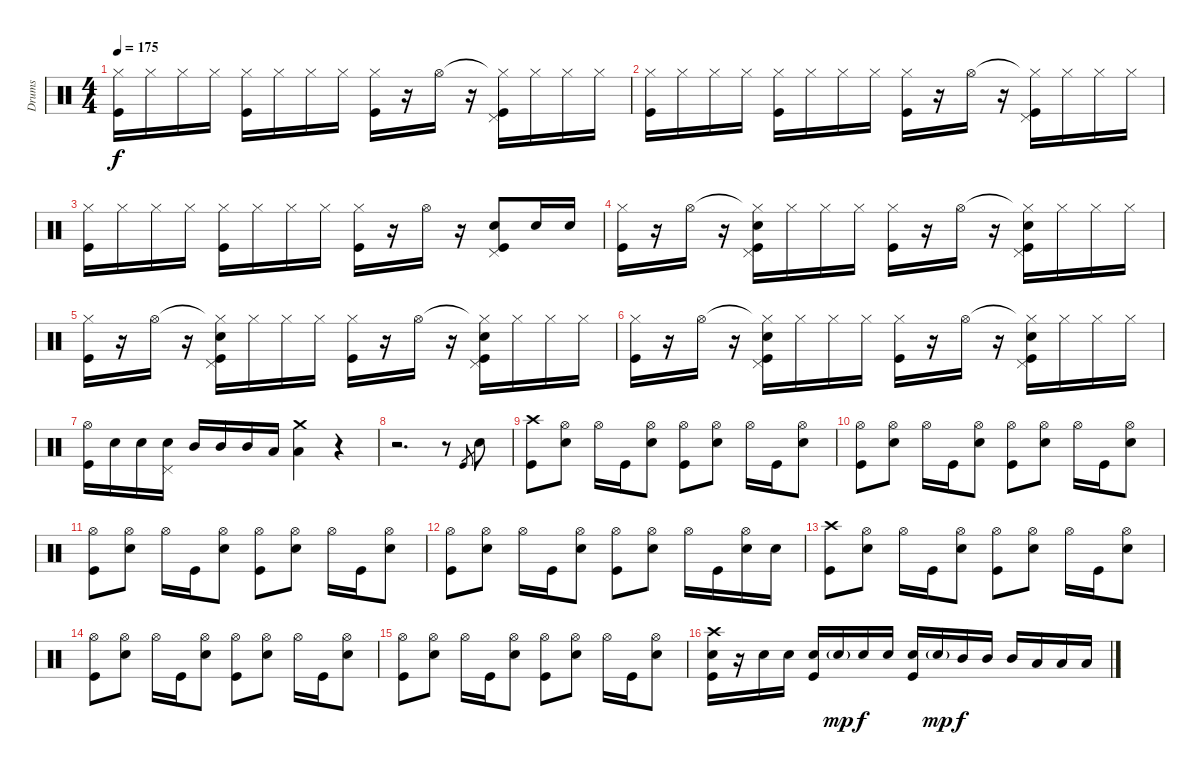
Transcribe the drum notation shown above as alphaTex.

\track ("Drums" "Drums") {instrument percussion}
\staff {score}
\articulation defaults
\ts (4 4)
\tempo 175
\clef neutral
\ks c
("Hi-Hat (closed)" "Kick (hit)").16{dy f} "Hi-Hat (closed)".16 "Hi-Hat (closed)".16 "Hi-Hat (closed)".16 ("Hi-Hat (closed)" "Kick (hit)").16 "Hi-Hat (closed)".16 "Hi-Hat (closed)".16 "Hi-Hat (closed)".16 ("Hi-Hat (closed)" "Kick (hit)").16 r.16 "Hi-Hat (open)".16 r.16 ("Hi-Hat (closed)"{t} "Pedal Hi-Hat (hit)" "Kick (hit)").16 "Hi-Hat (closed)".16 "Hi-Hat (closed)".16 "Hi-Hat (closed)".16 |
("Hi-Hat (closed)" "Kick (hit)").16 "Hi-Hat (closed)".16 "Hi-Hat (closed)".16 "Hi-Hat (closed)".16 ("Hi-Hat (closed)" "Kick (hit)").16 "Hi-Hat (closed)".16 "Hi-Hat (closed)".16 "Hi-Hat (closed)".16 ("Hi-Hat (closed)" "Kick (hit)").16 r.16 "Hi-Hat (open)".16 r.16 ("Hi-Hat (closed)"{t} "Pedal Hi-Hat (hit)" "Kick (hit)").16 "Hi-Hat (closed)".16 "Hi-Hat (closed)".16 "Hi-Hat (closed)".16 |
("Hi-Hat (closed)" "Kick (hit)").16 "Hi-Hat (closed)".16 "Hi-Hat (closed)".16 "Hi-Hat (closed)".16 ("Hi-Hat (closed)" "Kick (hit)").16 "Hi-Hat (closed)".16 "Hi-Hat (closed)".16 "Hi-Hat (closed)".16 ("Hi-Hat (closed)" "Kick (hit)").16 r.16 "Hi-Hat (open)".16 r.16 ("Pedal Hi-Hat (hit)" "Electric Snare (hit)" "Kick (hit)").8 "Electric Snare (hit)".16 "Electric Snare (hit)".16 |
("Hi-Hat (closed)" "Kick (hit)").16 r.16 "Hi-Hat (open)".16 r.16 ("Hi-Hat (closed)"{t} "Pedal Hi-Hat (hit)" "Electric Snare (hit)" "Kick (hit)").16 "Hi-Hat (closed)".16 "Hi-Hat (closed)".16 "Hi-Hat (closed)".16 ("Hi-Hat (closed)" "Kick (hit)").16 r.16 "Hi-Hat (open)".16 r.16 ("Hi-Hat (closed)"{t} "Pedal Hi-Hat (hit)" "Electric Snare (hit)" "Kick (hit)").16 "Hi-Hat (closed)".16 "Hi-Hat (closed)".16 "Hi-Hat (closed)".16 |
("Hi-Hat (closed)" "Kick (hit)").16 r.16 "Hi-Hat (open)".16 r.16 ("Hi-Hat (closed)"{t} "Pedal Hi-Hat (hit)" "Electric Snare (hit)" "Kick (hit)").16 "Hi-Hat (closed)".16 "Hi-Hat (closed)".16 "Hi-Hat (closed)".16 ("Hi-Hat (closed)" "Kick (hit)").16 r.16 "Hi-Hat (open)".16 r.16 ("Hi-Hat (closed)"{t} "Pedal Hi-Hat (hit)" "Electric Snare (hit)" "Kick (hit)").16 "Hi-Hat (closed)".16 "Hi-Hat (closed)".16 "Hi-Hat (closed)".16 |
("Hi-Hat (closed)" "Kick (hit)").16 r.16 "Hi-Hat (open)".16 r.16 ("Hi-Hat (closed)"{t} "Pedal Hi-Hat (hit)" "Electric Snare (hit)" "Kick (hit)").16 "Hi-Hat (closed)".16 "Hi-Hat (closed)".16 "Hi-Hat (closed)".16 ("Hi-Hat (closed)" "Kick (hit)").16 r.16 "Hi-Hat (open)".16 r.16 ("Hi-Hat (closed)"{t} "Pedal Hi-Hat (hit)" "Electric Snare (hit)" "Kick (hit)").16 "Hi-Hat (closed)".16 "Hi-Hat (closed)".16 "Hi-Hat (closed)".16 |
("Hi-Hat (open)" "Kick (hit)").16 "Electric Snare (hit)".16 "Electric Snare (hit)".16 ("Pedal Hi-Hat (hit)" "Electric Snare (hit)").16 "Mid Tom (hit)".16 "Mid Tom (hit)".16 "Mid Tom (hit)".16 "Low Tom (hit)".16 ("Crash medium (hit)" "Low Tom (hit)").4 r.4 |
r.2{d} r.8 "Kick (hit)".8{gr} "Snare (hit) 2".8 |
("Crash high (hit)" "Kick (hit)").8 ("Hi-Hat (open)" "Electric Snare (hit)").8 "Hi-Hat (open)".16 "Kick (hit)".16 ("Hi-Hat (open)" "Electric Snare (hit)").8 ("Hi-Hat (open)" "Kick (hit)").8 ("Hi-Hat (open)" "Electric Snare (hit)").8 "Hi-Hat (open)".16 "Kick (hit)".16 ("Hi-Hat (open)" "Electric Snare (hit)").8 |
("Hi-Hat (open)" "Kick (hit)").8 ("Hi-Hat (open)" "Electric Snare (hit)").8 "Hi-Hat (open)".16 "Kick (hit)".16 ("Hi-Hat (open)" "Electric Snare (hit)").8 ("Hi-Hat (open)" "Kick (hit)").8 ("Hi-Hat (open)" "Electric Snare (hit)").8 "Hi-Hat (open)".16 "Kick (hit)".16 ("Hi-Hat (open)" "Electric Snare (hit)").8 |
("Hi-Hat (open)" "Kick (hit)").8 ("Hi-Hat (open)" "Electric Snare (hit)").8 "Hi-Hat (open)".16 "Kick (hit)".16 ("Hi-Hat (open)" "Electric Snare (hit)").8 ("Hi-Hat (open)" "Kick (hit)").8 ("Hi-Hat (open)" "Electric Snare (hit)").8 "Hi-Hat (open)".16 "Kick (hit)".16 ("Hi-Hat (open)" "Electric Snare (hit)").8 |
("Hi-Hat (open)" "Kick (hit)").8 ("Hi-Hat (open)" "Electric Snare (hit)").8 "Hi-Hat (open)".16 "Kick (hit)".16 ("Hi-Hat (open)" "Electric Snare (hit)").8 ("Hi-Hat (open)" "Kick (hit)").8 ("Hi-Hat (open)" "Electric Snare (hit)").8 "Hi-Hat (open)".16 "Kick (hit)".16 ("Hi-Hat (open)" "Electric Snare (hit)").16 "Electric Snare (hit)".16 |
("Crash high (hit)" "Kick (hit)").8 ("Hi-Hat (open)" "Electric Snare (hit)").8 "Hi-Hat (open)".16 "Kick (hit)".16 ("Hi-Hat (open)" "Electric Snare (hit)").8 ("Hi-Hat (open)" "Kick (hit)").8 ("Hi-Hat (open)" "Electric Snare (hit)").8 "Hi-Hat (open)".16 "Kick (hit)".16 ("Hi-Hat (open)" "Electric Snare (hit)").8 |
("Hi-Hat (open)" "Kick (hit)").8 ("Hi-Hat (open)" "Electric Snare (hit)").8 "Hi-Hat (open)".16 "Kick (hit)".16 ("Hi-Hat (open)" "Electric Snare (hit)").8 ("Hi-Hat (open)" "Kick (hit)").8 ("Hi-Hat (open)" "Electric Snare (hit)").8 "Hi-Hat (open)".16 "Kick (hit)".16 ("Hi-Hat (open)" "Electric Snare (hit)").8 |
("Hi-Hat (open)" "Kick (hit)").8 ("Hi-Hat (open)" "Electric Snare (hit)").8 "Hi-Hat (open)".16 "Kick (hit)".16 ("Hi-Hat (open)" "Electric Snare (hit)").8 ("Hi-Hat (open)" "Kick (hit)").8 ("Hi-Hat (open)" "Electric Snare (hit)").8 "Hi-Hat (open)".16 "Kick (hit)".16 ("Hi-Hat (open)" "Electric Snare (hit)").8 |
("Crash high (hit)" "Electric Snare (hit)" "Kick (hit)").16 r.16 "Electric Snare (hit)".16 "Electric Snare (hit)".16 ("Electric Snare (hit)" "Kick (hit)").16 "Electric Snare (hit)"{g}.16{dy mp} "Electric Snare (hit)".16{dy f} "Electric Snare (hit)".16 ("Electric Snare (hit)" "Kick (hit)").16 "Electric Snare (hit)"{g}.16{dy mp} "Mid Tom (hit)".16{dy f} "Mid Tom (hit)".16 "Mid Tom (hit)".16 "Low Tom (hit)".16 "Low Tom (hit)".16 "Low Tom (hit)".16
